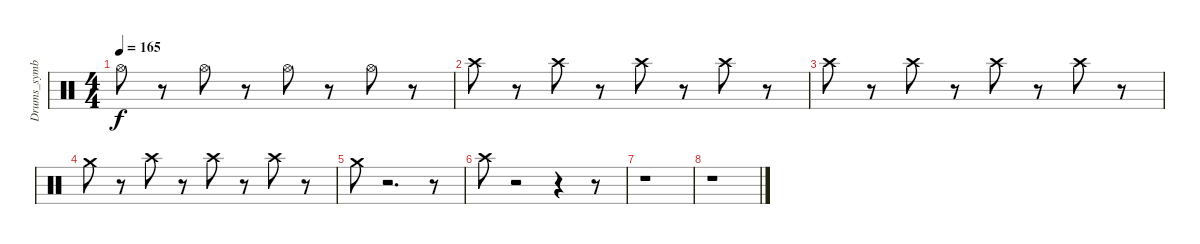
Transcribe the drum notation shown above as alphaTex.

\track ("Drums_symbal" "Drums_symb") {instrument percussion}
\staff {score}
\articulation defaults
\ts (4 4)
\tempo 165
\clef neutral
\ks c "Hi-Hat (open)".8{dy f}
r.8 "Hi-Hat (open)".8 r.8 "Hi-Hat (open)".8 r.8 "Hi-Hat (open)".8 r.8 |
"Crash high (hit)".8 r.8 "Crash high (hit)".8 r.8 "Crash high (hit)".8 r.8 "Crash high (hit)".8 r.8 |
"Crash high (hit)".8 r.8 "Crash high (hit)".8 r.8 "Crash high (hit)".8 r.8 "Crash high (hit)".8 r.8 |
"Crash medium (hit)".8 r.8 "Crash high (hit)".8 r.8 "Crash high (hit)".8 r.8 "Crash high (hit)".8 r.8 |
"Crash medium (hit)".8 r.2{d} r.8 |
"Crash high (hit)".8 r.2 r.4 r.8 |
r.1 |
r.1
